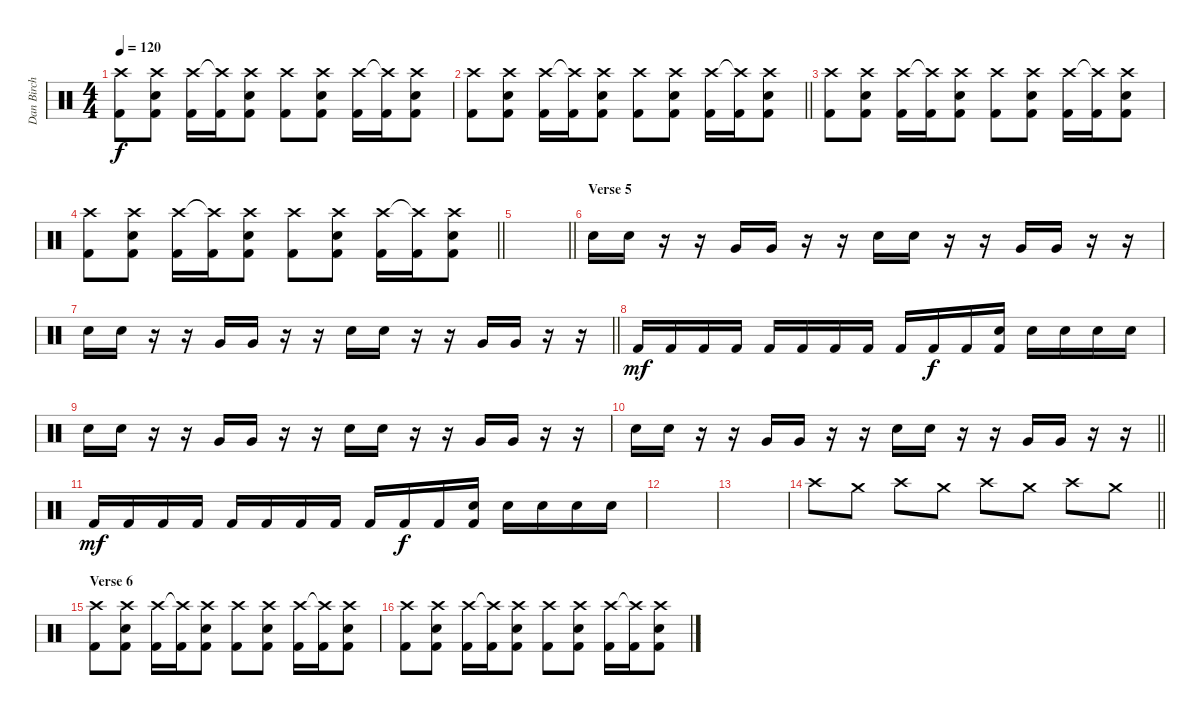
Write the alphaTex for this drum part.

\track ("Dan Birch" "Dan Birch") {instrument percussion}
\staff {score}
\articulation defaults
\ts (4 4)
\tempo 120
\clef neutral
\ks c
("Crash high (hit)" "Kick (hit) 2").8{dy f} ("Crash high (hit)" "Snare (hit) 2" "Kick (hit) 2").8 ("Crash high (hit)" "Kick (hit) 2").16 ("Crash high (hit)"{t} "Kick (hit) 2").16 ("Crash high (hit)" "Snare (hit) 2" "Kick (hit) 2").8 ("Crash high (hit)" "Kick (hit) 2").8 ("Crash high (hit)" "Snare (hit) 2" "Kick (hit) 2").8 ("Crash high (hit)" "Kick (hit) 2").16 ("Crash high (hit)"{t} "Kick (hit) 2").16 ("Crash high (hit)" "Snare (hit) 2" "Kick (hit) 2").8 |
\barLineRight lightlight
("Crash high (hit)" "Kick (hit) 2").8 ("Crash high (hit)" "Snare (hit) 2" "Kick (hit) 2").8 ("Crash high (hit)" "Kick (hit) 2").16 ("Crash high (hit)"{t} "Kick (hit) 2").16 ("Crash high (hit)" "Snare (hit) 2" "Kick (hit) 2").8 ("Crash high (hit)" "Kick (hit) 2").8 ("Crash high (hit)" "Snare (hit) 2" "Kick (hit) 2").8 ("Crash high (hit)" "Kick (hit) 2").16 ("Crash high (hit)"{t} "Kick (hit) 2").16 ("Crash high (hit)" "Snare (hit) 2" "Kick (hit) 2").8 |
("Crash high (hit)" "Kick (hit) 2").8 ("Crash high (hit)" "Snare (hit) 2" "Kick (hit) 2").8 ("Crash high (hit)" "Kick (hit) 2").16 ("Crash high (hit)"{t} "Kick (hit) 2").16 ("Crash high (hit)" "Snare (hit) 2" "Kick (hit) 2").8 ("Crash high (hit)" "Kick (hit) 2").8 ("Crash high (hit)" "Snare (hit) 2" "Kick (hit) 2").8 ("Crash high (hit)" "Kick (hit) 2").16 ("Crash high (hit)"{t} "Kick (hit) 2").16 ("Crash high (hit)" "Snare (hit) 2" "Kick (hit) 2").8 |
\barLineRight lightlight
("Crash high (hit)" "Kick (hit) 2").8 ("Crash high (hit)" "Snare (hit) 2" "Kick (hit) 2").8 ("Crash high (hit)" "Kick (hit) 2").16 ("Crash high (hit)"{t} "Kick (hit) 2").16 ("Crash high (hit)" "Snare (hit) 2" "Kick (hit) 2").8 ("Crash high (hit)" "Kick (hit) 2").8 ("Crash high (hit)" "Snare (hit) 2" "Kick (hit) 2").8 ("Crash high (hit)" "Kick (hit) 2").16 ("Crash high (hit)"{t} "Kick (hit) 2").16 ("Crash high (hit)" "Snare (hit) 2" "Kick (hit) 2").8 |
\barLineRight lightlight
|
\section ("" "Verse 5")
"Snare (hit) 2".16 "Snare (hit) 2".16 r.16 r.16 "Very Low Tom (hit)".16 "Very Low Tom (hit)".16 r.16 r.16 "Snare (hit) 2".16 "Snare (hit) 2".16 r.16 r.16 "Very Low Tom (hit)".16 "Very Low Tom (hit)".16 r.16 r.16 |
\barLineRight lightlight "Snare (hit) 2".16 "Snare (hit) 2".16
r.16 r.16 "Very Low Tom (hit)".16 "Very Low Tom (hit)".16 r.16 r.16 "Snare (hit) 2".16 "Snare (hit) 2".16 r.16 r.16 "Very Low Tom (hit)".16 "Very Low Tom (hit)".16 r.16 r.16 |
"Kick (hit) 2".16{dy mf} "Kick (hit) 2".16 "Kick (hit) 2".16 "Kick (hit) 2".16 "Kick (hit) 2".16 "Kick (hit) 2".16 "Kick (hit) 2".16 "Kick (hit) 2".16 "Kick (hit) 2".16 "Kick (hit) 2".16{dy f} "Kick (hit) 2".16 ("Snare (hit) 2" "Kick (hit) 2").16 "Snare (hit) 2".16 "Snare (hit) 2".16 "Snare (hit) 2".16 "Snare (hit) 2".16 |
"Snare (hit) 2".16 "Snare (hit) 2".16 r.16 r.16 "Very Low Tom (hit)".16 "Very Low Tom (hit)".16 r.16 r.16 "Snare (hit) 2".16 "Snare (hit) 2".16 r.16 r.16 "Very Low Tom (hit)".16 "Very Low Tom (hit)".16 r.16 r.16 |
\barLineRight lightlight "Snare (hit) 2".16 "Snare (hit) 2".16
r.16 r.16 "Very Low Tom (hit)".16 "Very Low Tom (hit)".16 r.16 r.16 "Snare (hit) 2".16 "Snare (hit) 2".16 r.16 r.16 "Very Low Tom (hit)".16 "Very Low Tom (hit)".16 r.16 r.16 |
"Kick (hit) 2".16{dy mf} "Kick (hit) 2".16 "Kick (hit) 2".16 "Kick (hit) 2".16 "Kick (hit) 2".16 "Kick (hit) 2".16 "Kick (hit) 2".16 "Kick (hit) 2".16 "Kick (hit) 2".16 "Kick (hit) 2".16{dy f} "Kick (hit) 2".16 ("Snare (hit) 2" "Kick (hit) 2").16 "Snare (hit) 2".16 "Snare (hit) 2".16 "Snare (hit) 2".16 "Snare (hit) 2".16 |
|
|
\barLineRight lightlight "Crash high (hit)".8 "Crash medium (hit)".8 "Crash high (hit)".8 "Crash medium (hit)".8 "Crash high (hit)".8 "Crash medium (hit)".8 "Crash high (hit)".8 "Crash medium (hit)".8
|
\section ("" "Verse 6")
("Crash high (hit)" "Kick (hit) 2").8 ("Crash high (hit)" "Snare (hit) 2" "Kick (hit) 2").8 ("Crash high (hit)" "Kick (hit) 2").16 ("Crash high (hit)"{t} "Kick (hit) 2").16 ("Crash high (hit)" "Snare (hit) 2" "Kick (hit) 2").8 ("Crash high (hit)" "Kick (hit) 2").8 ("Crash high (hit)" "Snare (hit) 2" "Kick (hit) 2").8 ("Crash high (hit)" "Kick (hit) 2").16 ("Crash high (hit)"{t} "Kick (hit) 2").16 ("Crash high (hit)" "Snare (hit) 2" "Kick (hit) 2").8 |
("Crash high (hit)" "Kick (hit) 2").8 ("Crash high (hit)" "Snare (hit) 2" "Kick (hit) 2").8 ("Crash high (hit)" "Kick (hit) 2").16 ("Crash high (hit)"{t} "Kick (hit) 2").16 ("Crash high (hit)" "Snare (hit) 2" "Kick (hit) 2").8 ("Crash high (hit)" "Kick (hit) 2").8 ("Crash high (hit)" "Snare (hit) 2" "Kick (hit) 2").8 ("Crash high (hit)" "Kick (hit) 2").16 ("Crash high (hit)"{t} "Kick (hit) 2").16 ("Crash high (hit)" "Snare (hit) 2" "Kick (hit) 2").8
